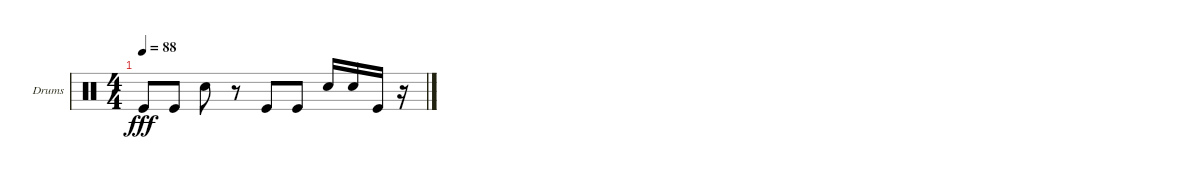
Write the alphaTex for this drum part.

\defaultSystemsLayout 4
\bracketExtendMode groupsimilarinstruments
\firstSystemTrackNameOrientation horizontal
\otherSystemsTrackNameOrientation horizontal
\track ("Drumkit" "Drums") {instrument percussion}
\staff {score}
\articulation defaults
\ts (4 4)
\tempo 88
\clef neutral
\ks c "Kick (hit)".8{dy fff} "Kick (hit)".8 "Snare (hit) 2".8
r.8 "Kick (hit)".8 "Kick (hit)".8 "Snare (hit) 2".16 "Snare (hit) 2".16 "Kick (hit)".16 r.16
